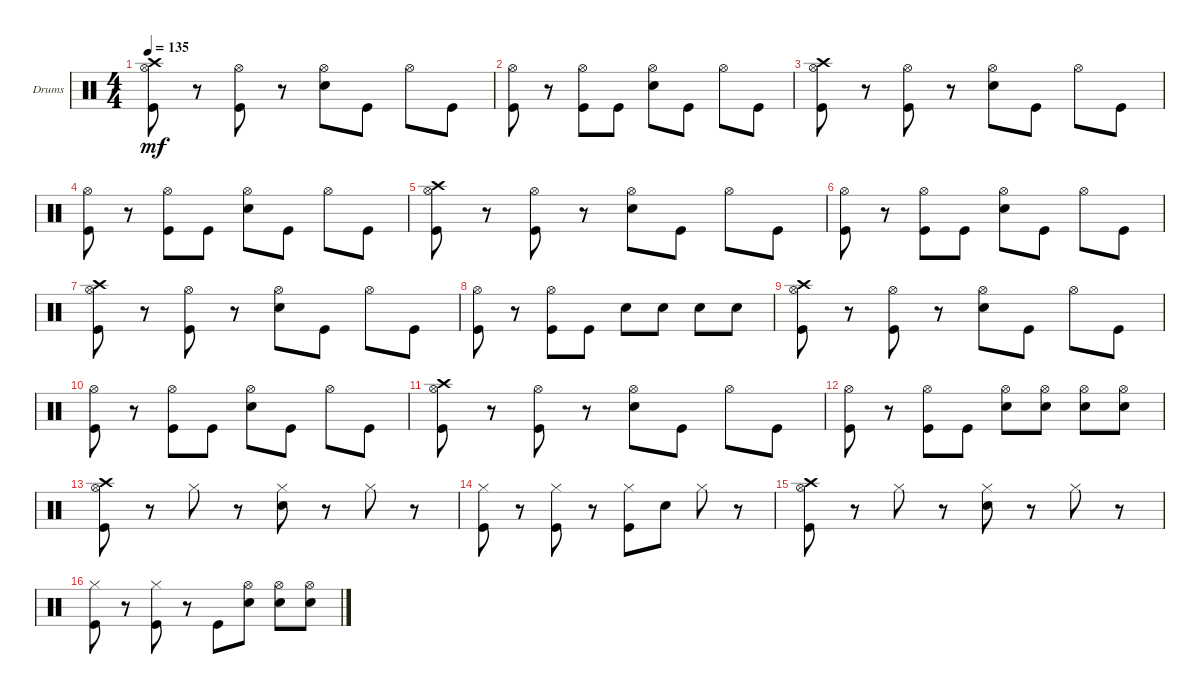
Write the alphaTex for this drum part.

\defaultSystemsLayout 4
\bracketExtendMode groupsimilarinstruments
\firstSystemTrackNameOrientation horizontal
\otherSystemsTrackNameOrientation horizontal
\track ("Drumkit" "Drums") {instrument percussion}
\staff {score}
\articulation defaults
\ts (4 4)
\tempo 135
\clef neutral
\ks c
("Crash high (hit)" "Kick (hit)" "Hi-Hat (open)").8{dy mf} r.8 ("Hi-Hat (open)" "Kick (hit)").8 r.8 ("Hi-Hat (open)" "Snare (hit) 2").8 "Kick (hit)".8 "Hi-Hat (open)".8 "Kick (hit)".8 |
("Kick (hit)" "Hi-Hat (open)").8 r.8 ("Kick (hit)" "Hi-Hat (open)").8 "Kick (hit)".8 ("Snare (hit) 2" "Hi-Hat (open)").8 "Kick (hit)".8 "Hi-Hat (open)".8 "Kick (hit)".8 |
("Crash high (hit)" "Kick (hit)" "Hi-Hat (open)").8 r.8 ("Hi-Hat (open)" "Kick (hit)").8 r.8 ("Hi-Hat (open)" "Snare (hit) 2").8 "Kick (hit)".8 "Hi-Hat (open)".8 "Kick (hit)".8 |
("Kick (hit)" "Hi-Hat (open)").8 r.8 ("Kick (hit)" "Hi-Hat (open)").8 "Kick (hit)".8 ("Snare (hit) 2" "Hi-Hat (open)").8 "Kick (hit)".8 "Hi-Hat (open)".8 "Kick (hit)".8 |
("Crash high (hit)" "Kick (hit)" "Hi-Hat (open)").8 r.8 ("Hi-Hat (open)" "Kick (hit)").8 r.8 ("Hi-Hat (open)" "Snare (hit) 2").8 "Kick (hit)".8 "Hi-Hat (open)".8 "Kick (hit)".8 |
("Kick (hit)" "Hi-Hat (open)").8 r.8 ("Kick (hit)" "Hi-Hat (open)").8 "Kick (hit)".8 ("Snare (hit) 2" "Hi-Hat (open)").8 "Kick (hit)".8 "Hi-Hat (open)".8 "Kick (hit)".8 |
("Crash high (hit)" "Kick (hit)" "Hi-Hat (open)").8 r.8 ("Hi-Hat (open)" "Kick (hit)").8 r.8 ("Hi-Hat (open)" "Snare (hit) 2").8 "Kick (hit)".8 "Hi-Hat (open)".8 "Kick (hit)".8 |
("Kick (hit)" "Hi-Hat (open)").8 r.8 ("Kick (hit)" "Hi-Hat (open)").8 "Kick (hit)".8 "Snare (hit) 2".8 "Snare (hit) 2".8 "Snare (hit) 2".8 "Snare (hit) 2".8 |
("Crash high (hit)" "Kick (hit)" "Hi-Hat (open)").8 r.8 ("Hi-Hat (open)" "Kick (hit)").8 r.8 ("Hi-Hat (open)" "Snare (hit) 2").8 "Kick (hit)".8 "Hi-Hat (open)".8 "Kick (hit)".8 |
("Kick (hit)" "Hi-Hat (open)").8 r.8 ("Kick (hit)" "Hi-Hat (open)").8 "Kick (hit)".8 ("Snare (hit) 2" "Hi-Hat (open)").8 "Kick (hit)".8 "Hi-Hat (open)".8 "Kick (hit)".8 |
("Crash high (hit)" "Kick (hit)" "Hi-Hat (open)").8 r.8 ("Hi-Hat (open)" "Kick (hit)").8 r.8 ("Hi-Hat (open)" "Snare (hit) 2").8 "Kick (hit)".8 "Hi-Hat (open)".8 "Kick (hit)".8 |
("Kick (hit)" "Hi-Hat (open)").8 r.8 ("Kick (hit)" "Hi-Hat (open)").8 "Kick (hit)".8 ("Snare (hit) 2" "Hi-Hat (open)").8 ("Snare (hit) 2" "Hi-Hat (open)").8 ("Snare (hit) 2" "Hi-Hat (open)").8 ("Snare (hit) 2" "Hi-Hat (open)").8 |
("Crash high (hit)" "Kick (hit)" "Hi-Hat (open)").8 r.8 "Hi-Hat (closed)".8 r.8 ("Hi-Hat (closed)" "Snare (hit) 2").8 r.8 "Hi-Hat (closed)".8 r.8 |
("Kick (hit)" "Hi-Hat (closed)").8 r.8 ("Kick (hit)" "Hi-Hat (closed)").8 r.8 ("Kick (hit)" "Hi-Hat (closed)").8 "Snare (hit) 2".8 "Hi-Hat (closed)".8 r.8 |
("Crash high (hit)" "Kick (hit)" "Hi-Hat (open)").8 r.8 "Hi-Hat (closed)".8 r.8 ("Hi-Hat (closed)" "Snare (hit) 2").8 r.8 "Hi-Hat (closed)".8 r.8 |
("Kick (hit)" "Hi-Hat (closed)").8 r.8 ("Kick (hit)" "Hi-Hat (closed)").8 r.8 "Kick (hit)".8 ("Snare (hit) 2" "Hi-Hat (open)").8 ("Snare (hit) 2" "Hi-Hat (open)").8 ("Snare (hit) 2" "Hi-Hat (open)").8
